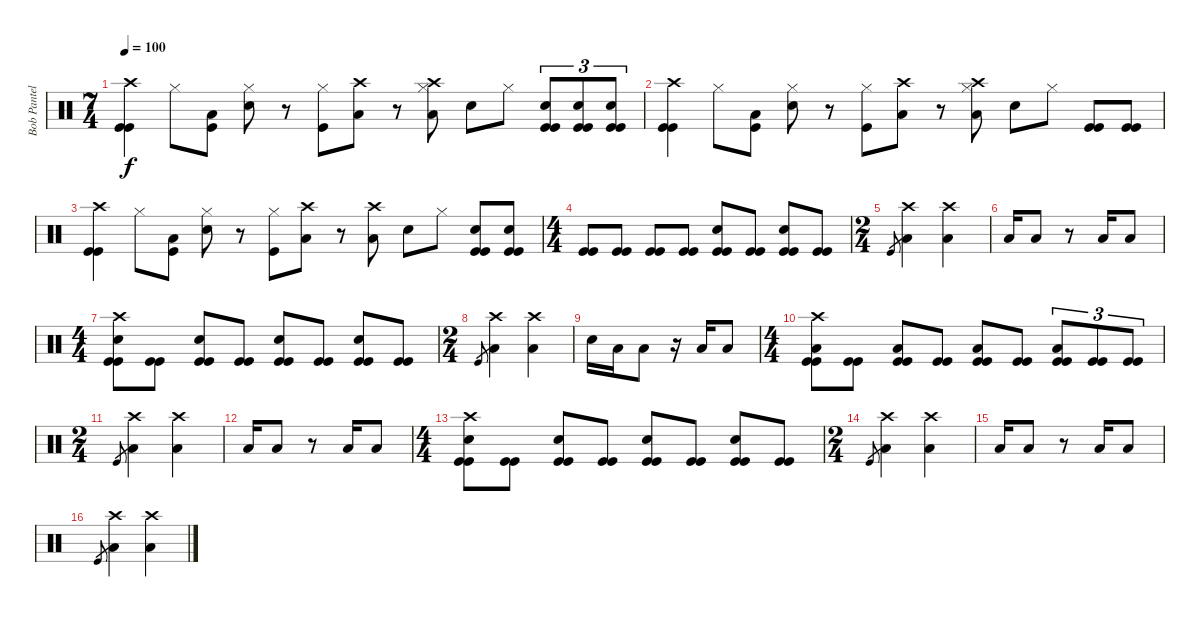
\track ("Bob Pantella" "Bob Pantel") {instrument percussion}
\staff {score}
\articulation defaults
\ts (7 4)
\tempo 100
\clef neutral
\ks c
("Crash high (hit)" "Kick (hit)" "Kick (hit)").4{dy f} "Hi-Hat (closed)".8 ("Low Floor Tom (hit)" "Kick (hit)").8 ("Hi-Hat (closed)" "Electric Snare (hit)").8 r.8 ("Hi-Hat (closed)" "Kick (hit)").8 ("Crash high (hit)" "Low Floor Tom (hit)").8 r.8 ("Crash high (hit)" "Hi-Hat (closed)" "Low Floor Tom (hit)").8 "Electric Snare (hit)".8 "Hi-Hat (closed)".8 ("Electric Snare (hit)" "Kick (hit)" "Kick (hit)").8{tu (3 2)} ("Electric Snare (hit)" "Kick (hit)" "Kick (hit)").8{tu (3 2)} ("Electric Snare (hit)" "Kick (hit)" "Kick (hit)").8{tu (3 2)} |
("Crash high (hit)" "Kick (hit)" "Kick (hit)").4 "Hi-Hat (closed)".8 ("Low Floor Tom (hit)" "Kick (hit)").8 ("Hi-Hat (closed)" "Electric Snare (hit)").8 r.8 ("Hi-Hat (closed)" "Kick (hit)").8 ("Crash high (hit)" "Low Floor Tom (hit)").8 r.8 ("Crash high (hit)" "Hi-Hat (closed)" "Low Floor Tom (hit)").8 "Electric Snare (hit)".8 "Hi-Hat (closed)".8 ("Kick (hit)" "Kick (hit)").8 ("Kick (hit)" "Kick (hit)").8 |
("Crash high (hit)" "Kick (hit)" "Kick (hit)").4 "Hi-Hat (closed)".8 ("Low Floor Tom (hit)" "Kick (hit)").8 ("Hi-Hat (closed)" "Electric Snare (hit)").8 r.8 ("Hi-Hat (closed)" "Kick (hit)").8 ("Crash high (hit)" "Low Floor Tom (hit)").8 r.8 ("Crash high (hit)" "Low Floor Tom (hit)").8 "Electric Snare (hit)".8 "Hi-Hat (closed)".8 ("Electric Snare (hit)" "Kick (hit)" "Kick (hit)").8 ("Electric Snare (hit)" "Kick (hit)" "Kick (hit)").8 |
\ts (4 4)
("Kick (hit)" "Kick (hit)").8 ("Kick (hit)" "Kick (hit)").8 ("Kick (hit)" "Kick (hit)").8 ("Kick (hit)" "Kick (hit)").8 ("Electric Snare (hit)" "Kick (hit)" "Kick (hit)").8 ("Kick (hit)" "Kick (hit)").8 ("Electric Snare (hit)" "Kick (hit)" "Kick (hit)").8 ("Kick (hit)" "Kick (hit)").8 |
\ts (2 4)
"Kick (hit)".8{gr} ("Crash high (hit)" "Low Floor Tom (hit)").4 ("Crash high (hit)" "Low Floor Tom (hit)").4 |
"Low Floor Tom (hit)".16 "Low Floor Tom (hit)".8 r.8 "Low Floor Tom (hit)".16 "Low Floor Tom (hit)".8 |
\ts (4 4)
("Crash high (hit)" "Electric Snare (hit)" "Kick (hit)" "Kick (hit)").8 ("Kick (hit)" "Kick (hit)").8 ("Electric Snare (hit)" "Kick (hit)" "Kick (hit)").8 ("Kick (hit)" "Kick (hit)").8 ("Electric Snare (hit)" "Kick (hit)" "Kick (hit)").8 ("Kick (hit)" "Kick (hit)").8 ("Electric Snare (hit)" "Kick (hit)" "Kick (hit)").8 ("Kick (hit)" "Kick (hit)").8 |
\ts (2 4)
"Kick (hit)".8{gr} ("Crash high (hit)" "Low Floor Tom (hit)").4 ("Crash high (hit)" "Low Floor Tom (hit)").4 |
"Electric Snare (hit)".16 "Low Floor Tom (hit)".16 "Low Floor Tom (hit)".8 r.16 "Low Floor Tom (hit)".16 "Low Floor Tom (hit)".8 |
\ts (4 4)
("Crash high (hit)" "Low Floor Tom (hit)" "Kick (hit)" "Kick (hit)").8 ("Kick (hit)" "Kick (hit)").8 ("Low Floor Tom (hit)" "Kick (hit)" "Kick (hit)").8 ("Kick (hit)" "Kick (hit)").8 ("Low Floor Tom (hit)" "Kick (hit)" "Kick (hit)").8 ("Kick (hit)" "Kick (hit)").8 ("Low Floor Tom (hit)" "Kick (hit)" "Kick (hit)").8{tu (3 2)} ("Kick (hit)" "Kick (hit)").8{tu (3 2)} ("Kick (hit)" "Kick (hit)").8{tu (3 2)} |
\ts (2 4)
"Kick (hit)".8{gr} ("Crash high (hit)" "Low Floor Tom (hit)").4 ("Crash high (hit)" "Low Floor Tom (hit)").4 |
"Low Floor Tom (hit)".16 "Low Floor Tom (hit)".8 r.8 "Low Floor Tom (hit)".16 "Low Floor Tom (hit)".8 |
\ts (4 4)
("Crash high (hit)" "Electric Snare (hit)" "Kick (hit)" "Kick (hit)").8 ("Kick (hit)" "Kick (hit)").8 ("Electric Snare (hit)" "Kick (hit)" "Kick (hit)").8 ("Kick (hit)" "Kick (hit)").8 ("Electric Snare (hit)" "Kick (hit)" "Kick (hit)").8 ("Kick (hit)" "Kick (hit)").8 ("Electric Snare (hit)" "Kick (hit)" "Kick (hit)").8 ("Kick (hit)" "Kick (hit)").8 |
\ts (2 4)
"Kick (hit)".8{gr} ("Crash high (hit)" "Low Floor Tom (hit)").4 ("Crash high (hit)" "Low Floor Tom (hit)").4 |
"Low Floor Tom (hit)".16 "Low Floor Tom (hit)".8 r.8 "Low Floor Tom (hit)".16 "Low Floor Tom (hit)".8 |
"Kick (hit)".8{gr} ("Crash high (hit)" "Low Floor Tom (hit)").4 ("Crash high (hit)" "Low Floor Tom (hit)").4
